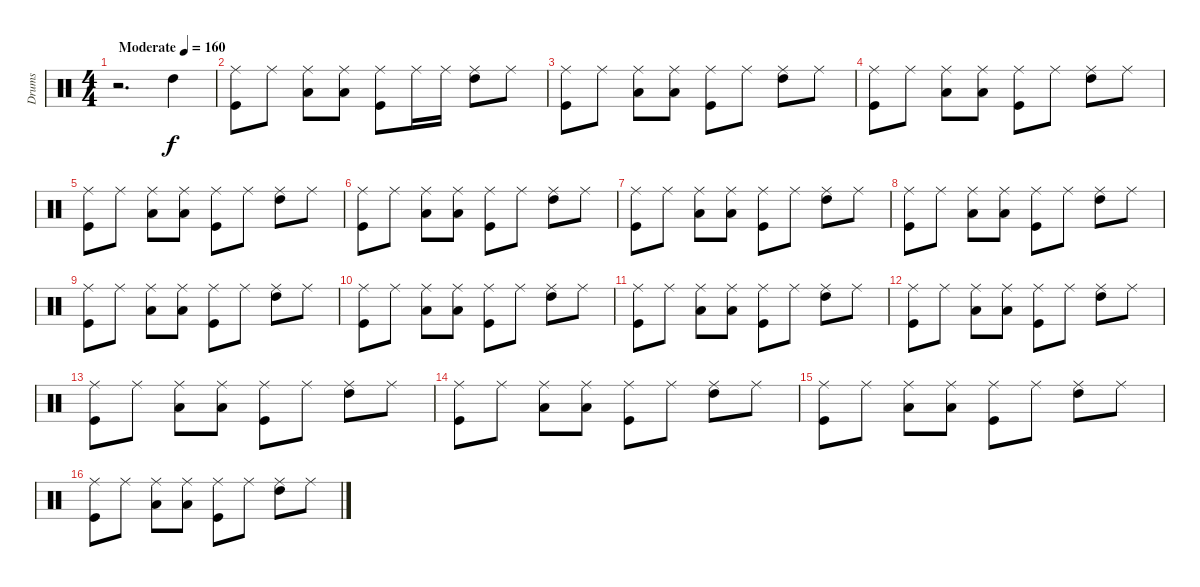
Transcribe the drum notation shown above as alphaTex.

\track ("Drums" "Drums") {instrument percussion}
\staff {score}
\articulation defaults
\ts (4 4)
\tempo (160 "Moderate")
\clef neutral
\ks c
r.2{d dy f} "High Tom (hit)".4 |
("Ride (middle)" "Kick (hit)").8 "Ride (middle)".8 ("Ride (middle)" "Low Floor Tom (hit)").8 ("Ride (middle)" "Low Floor Tom (hit)").8 ("Ride (middle)" "Kick (hit)").8 "Ride (middle)".16 "Ride (middle)".16 ("Ride (middle)" "High Tom (hit)").8 "Ride (middle)".8 |
("Ride (middle)" "Kick (hit)").8 "Ride (middle)".8 ("Ride (middle)" "Low Floor Tom (hit)").8 ("Ride (middle)" "Low Floor Tom (hit)").8 ("Ride (middle)" "Kick (hit)").8 "Ride (middle)".8 ("Ride (middle)" "High Tom (hit)").8 "Ride (middle)".8 |
("Ride (middle)" "Kick (hit)").8 "Ride (middle)".8 ("Ride (middle)" "Low Floor Tom (hit)").8 ("Ride (middle)" "Low Floor Tom (hit)").8 ("Ride (middle)" "Kick (hit)").8 "Ride (middle)".8 ("Ride (middle)" "High Tom (hit)").8 "Ride (middle)".8 |
("Ride (middle)" "Kick (hit)").8 "Ride (middle)".8 ("Ride (middle)" "Low Floor Tom (hit)").8 ("Ride (middle)" "Low Floor Tom (hit)").8 ("Ride (middle)" "Kick (hit)").8 "Ride (middle)".8 ("Ride (middle)" "High Tom (hit)").8 "Ride (middle)".8 |
("Ride (middle)" "Kick (hit)").8 "Ride (middle)".8 ("Ride (middle)" "Low Floor Tom (hit)").8 ("Ride (middle)" "Low Floor Tom (hit)").8 ("Ride (middle)" "Kick (hit)").8 "Ride (middle)".8 ("Ride (middle)" "High Tom (hit)").8 "Ride (middle)".8 |
("Ride (middle)" "Kick (hit)").8 "Ride (middle)".8 ("Ride (middle)" "Low Floor Tom (hit)").8 ("Ride (middle)" "Low Floor Tom (hit)").8 ("Ride (middle)" "Kick (hit)").8 "Ride (middle)".8 ("Ride (middle)" "High Tom (hit)").8 "Ride (middle)".8 |
("Ride (middle)" "Kick (hit)").8 "Ride (middle)".8 ("Ride (middle)" "Low Floor Tom (hit)").8 ("Ride (middle)" "Low Floor Tom (hit)").8 ("Ride (middle)" "Kick (hit)").8 "Ride (middle)".8 ("Ride (middle)" "High Tom (hit)").8 "Ride (middle)".8 |
("Ride (middle)" "Kick (hit)").8 "Ride (middle)".8 ("Ride (middle)" "Low Floor Tom (hit)").8 ("Ride (middle)" "Low Floor Tom (hit)").8 ("Ride (middle)" "Kick (hit)").8 "Ride (middle)".8 ("Ride (middle)" "High Tom (hit)").8 "Ride (middle)".8 |
("Ride (middle)" "Kick (hit)").8 "Ride (middle)".8 ("Ride (middle)" "Low Floor Tom (hit)").8 ("Ride (middle)" "Low Floor Tom (hit)").8 ("Ride (middle)" "Kick (hit)").8 "Ride (middle)".8 ("Ride (middle)" "High Tom (hit)").8 "Ride (middle)".8 |
("Ride (middle)" "Kick (hit)").8 "Ride (middle)".8 ("Ride (middle)" "Low Floor Tom (hit)").8 ("Ride (middle)" "Low Floor Tom (hit)").8 ("Ride (middle)" "Kick (hit)").8 "Ride (middle)".8 ("Ride (middle)" "High Tom (hit)").8 "Ride (middle)".8 |
("Ride (middle)" "Kick (hit)").8 "Ride (middle)".8 ("Ride (middle)" "Low Floor Tom (hit)").8 ("Ride (middle)" "Low Floor Tom (hit)").8 ("Ride (middle)" "Kick (hit)").8 "Ride (middle)".8 ("Ride (middle)" "High Tom (hit)").8 "Ride (middle)".8 |
("Ride (middle)" "Kick (hit)").8 "Ride (middle)".8 ("Ride (middle)" "Low Floor Tom (hit)").8 ("Ride (middle)" "Low Floor Tom (hit)").8 ("Ride (middle)" "Kick (hit)").8 "Ride (middle)".8 ("Ride (middle)" "High Tom (hit)").8 "Ride (middle)".8 |
("Ride (middle)" "Kick (hit)").8 "Ride (middle)".8 ("Ride (middle)" "Low Floor Tom (hit)").8 ("Ride (middle)" "Low Floor Tom (hit)").8 ("Ride (middle)" "Kick (hit)").8 "Ride (middle)".8 ("Ride (middle)" "High Tom (hit)").8 "Ride (middle)".8 |
("Ride (middle)" "Kick (hit)").8 "Ride (middle)".8 ("Ride (middle)" "Low Floor Tom (hit)").8 ("Ride (middle)" "Low Floor Tom (hit)").8 ("Ride (middle)" "Kick (hit)").8 "Ride (middle)".8 ("Ride (middle)" "High Tom (hit)").8 "Ride (middle)".8 |
("Ride (middle)" "Kick (hit)").8 "Ride (middle)".8 ("Ride (middle)" "Low Floor Tom (hit)").8 ("Ride (middle)" "Low Floor Tom (hit)").8 ("Ride (middle)" "Kick (hit)").8 "Ride (middle)".8 ("Ride (middle)" "High Tom (hit)").8 "Ride (middle)".8
